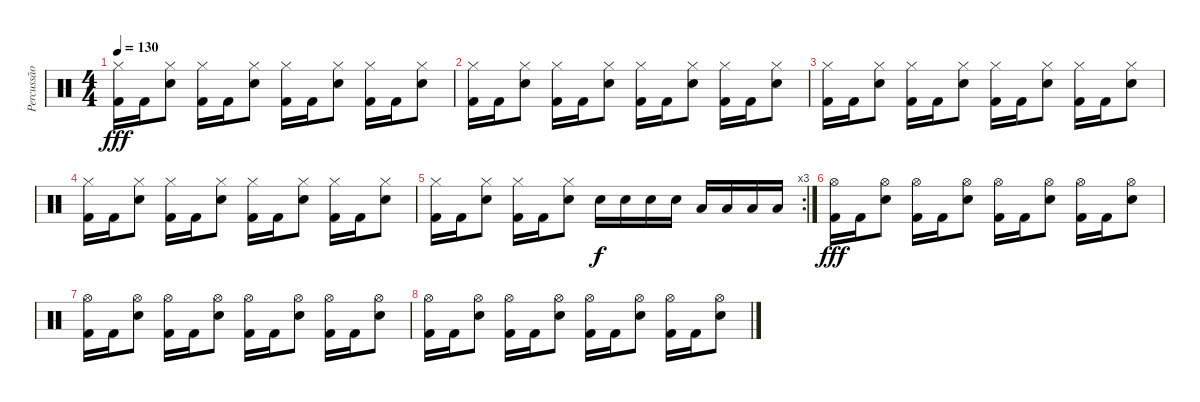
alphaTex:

\track ("Percussão" "Percussão") {instrument percussion}
\staff {score}
\articulation defaults
\ts (4 4)
\tempo 130
\clef neutral
\ks c
("Hi-Hat (closed)" "Kick (hit) 2").16{dy fff} "Kick (hit) 2".16 ("Hi-Hat (closed)" "Snare (hit) 2").8 ("Hi-Hat (closed)" "Kick (hit) 2").16 "Kick (hit) 2".16 ("Hi-Hat (closed)" "Snare (hit) 2").8 ("Hi-Hat (closed)" "Kick (hit) 2").16 "Kick (hit) 2".16 ("Hi-Hat (closed)" "Snare (hit) 2").8 ("Hi-Hat (closed)" "Kick (hit) 2").16 "Kick (hit) 2".16 ("Hi-Hat (closed)" "Snare (hit) 2").8 |
("Hi-Hat (closed)" "Kick (hit) 2").16 "Kick (hit) 2".16 ("Hi-Hat (closed)" "Snare (hit) 2").8 ("Hi-Hat (closed)" "Kick (hit) 2").16 "Kick (hit) 2".16 ("Hi-Hat (closed)" "Snare (hit) 2").8 ("Hi-Hat (closed)" "Kick (hit) 2").16 "Kick (hit) 2".16 ("Hi-Hat (closed)" "Snare (hit) 2").8 ("Hi-Hat (closed)" "Kick (hit) 2").16 "Kick (hit) 2".16 ("Hi-Hat (closed)" "Snare (hit) 2").8 |
("Hi-Hat (closed)" "Kick (hit) 2").16 "Kick (hit) 2".16 ("Hi-Hat (closed)" "Snare (hit) 2").8 ("Hi-Hat (closed)" "Kick (hit) 2").16 "Kick (hit) 2".16 ("Hi-Hat (closed)" "Snare (hit) 2").8 ("Hi-Hat (closed)" "Kick (hit) 2").16 "Kick (hit) 2".16 ("Hi-Hat (closed)" "Snare (hit) 2").8 ("Hi-Hat (closed)" "Kick (hit) 2").16 "Kick (hit) 2".16 ("Hi-Hat (closed)" "Snare (hit) 2").8 |
("Hi-Hat (closed)" "Kick (hit) 2").16 "Kick (hit) 2".16 ("Hi-Hat (closed)" "Snare (hit) 2").8 ("Hi-Hat (closed)" "Kick (hit) 2").16 "Kick (hit) 2".16 ("Hi-Hat (closed)" "Snare (hit) 2").8 ("Hi-Hat (closed)" "Kick (hit) 2").16 "Kick (hit) 2".16 ("Hi-Hat (closed)" "Snare (hit) 2").8 ("Hi-Hat (closed)" "Kick (hit) 2").16 "Kick (hit) 2".16 ("Hi-Hat (closed)" "Snare (hit) 2").8 |
\rc 3
("Hi-Hat (closed)" "Kick (hit) 2").16 "Kick (hit) 2".16 ("Hi-Hat (closed)" "Snare (hit) 2").8 ("Hi-Hat (closed)" "Kick (hit) 2").16 "Kick (hit) 2".16 ("Hi-Hat (closed)" "Snare (hit) 2").8 "Snare (hit) 2".16{dy f} "Snare (hit) 2".16 "Snare (hit) 2".16 "Snare (hit) 2".16 "Low Tom (hit)".16 "Low Tom (hit)".16 "Low Tom (hit)".16 "Low Tom (hit)".16 |
("Hi-Hat (open)" "Kick (hit) 2").16{dy fff} "Kick (hit) 2".16 ("Hi-Hat (open)" "Snare (hit) 2").8 ("Hi-Hat (open)" "Kick (hit) 2").16 "Kick (hit) 2".16 ("Hi-Hat (open)" "Snare (hit) 2").8 ("Hi-Hat (open)" "Kick (hit) 2").16 "Kick (hit) 2".16 ("Hi-Hat (open)" "Snare (hit) 2").8 ("Hi-Hat (open)" "Kick (hit) 2").16 "Kick (hit) 2".16 ("Hi-Hat (open)" "Snare (hit) 2").8 |
("Hi-Hat (open)" "Kick (hit) 2").16 "Kick (hit) 2".16 ("Hi-Hat (open)" "Snare (hit) 2").8 ("Hi-Hat (open)" "Kick (hit) 2").16 "Kick (hit) 2".16 ("Hi-Hat (open)" "Snare (hit) 2").8 ("Hi-Hat (open)" "Kick (hit) 2").16 "Kick (hit) 2".16 ("Hi-Hat (open)" "Snare (hit) 2").8 ("Hi-Hat (open)" "Kick (hit) 2").16 "Kick (hit) 2".16 ("Hi-Hat (open)" "Snare (hit) 2").8 |
("Hi-Hat (open)" "Kick (hit) 2").16 "Kick (hit) 2".16 ("Hi-Hat (open)" "Snare (hit) 2").8 ("Hi-Hat (open)" "Kick (hit) 2").16 "Kick (hit) 2".16 ("Hi-Hat (open)" "Snare (hit) 2").8 ("Hi-Hat (open)" "Kick (hit) 2").16 "Kick (hit) 2".16 ("Hi-Hat (open)" "Snare (hit) 2").8 ("Hi-Hat (open)" "Kick (hit) 2").16 "Kick (hit) 2".16 ("Hi-Hat (open)" "Snare (hit) 2").8
